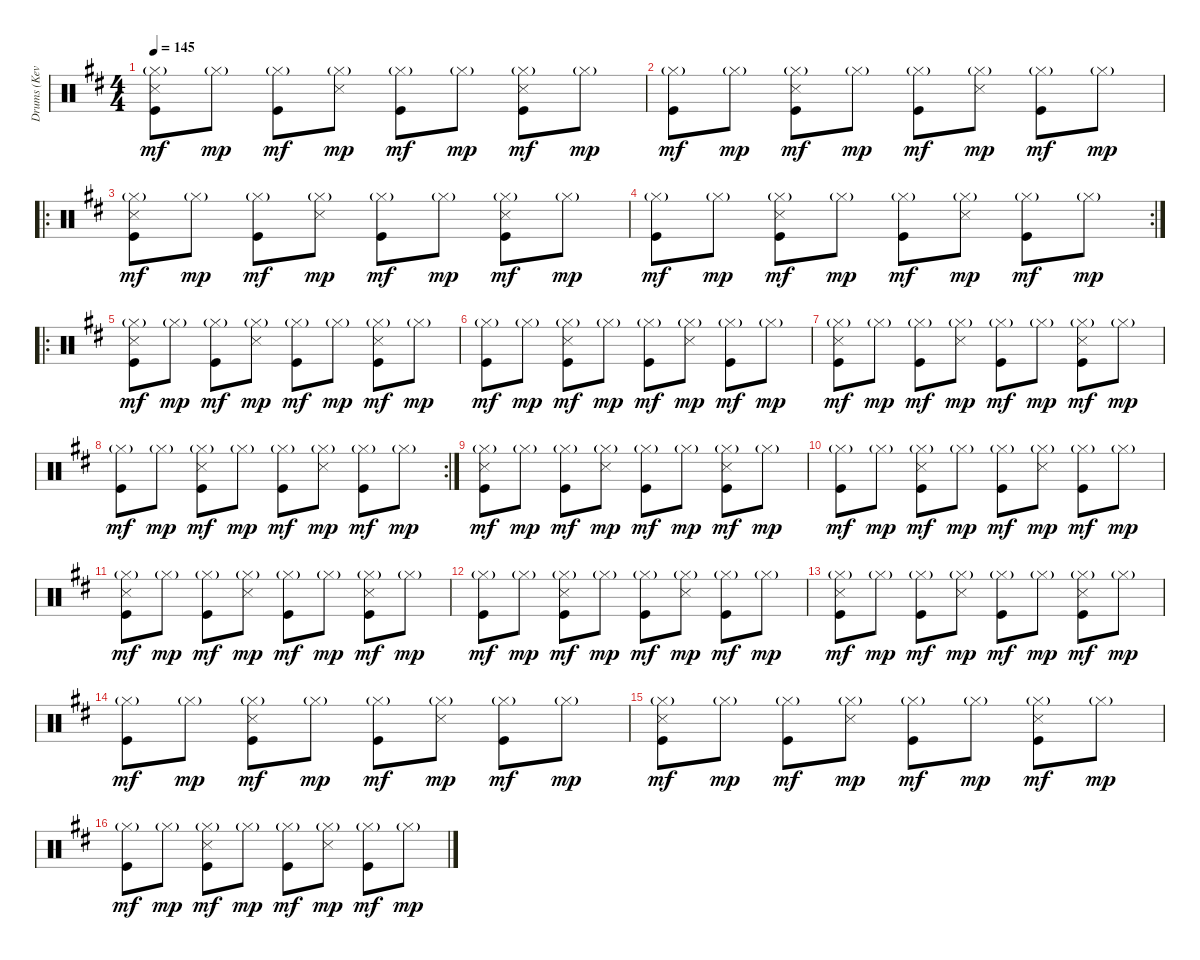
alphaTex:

\track ("Drums (Kevin Haskins)" "Drums (Kev") {instrument percussion}
\staff {score}
\articulation defaults
\ts (4 4)
\tempo 145
\clef neutral
\ks d
("Hi-Hat (closed)"{g} "Snare (side stick) 3" "Kick (hit)").8{dy mf} "Hi-Hat (closed)"{g}.8{dy mp} ("Hi-Hat (closed)"{g} "Kick (hit)").8{dy mf} ("Hi-Hat (closed)"{g} "Snare (side stick) 3").8{dy mp} ("Hi-Hat (closed)"{g} "Kick (hit)").8{dy mf} "Hi-Hat (closed)"{g}.8{dy mp} ("Hi-Hat (closed)"{g} "Snare (side stick) 3" "Kick (hit)").8{dy mf} "Hi-Hat (closed)"{g}.8{dy mp} |
("Hi-Hat (closed)"{g} "Kick (hit)").8{dy mf} "Hi-Hat (closed)"{g}.8{dy mp} ("Hi-Hat (closed)"{g} "Snare (side stick) 3" "Kick (hit)").8{dy mf} "Hi-Hat (closed)"{g}.8{dy mp} ("Hi-Hat (closed)"{g} "Kick (hit)").8{dy mf} ("Hi-Hat (closed)"{g} "Snare (side stick) 3").8{dy mp} ("Hi-Hat (closed)"{g} "Kick (hit)").8{dy mf} "Hi-Hat (closed)"{g}.8{dy mp} |
\ro
("Hi-Hat (closed)"{g} "Snare (side stick) 3" "Kick (hit)").8{dy mf} "Hi-Hat (closed)"{g}.8{dy mp} ("Hi-Hat (closed)"{g} "Kick (hit)").8{dy mf} ("Hi-Hat (closed)"{g} "Snare (side stick) 3").8{dy mp} ("Hi-Hat (closed)"{g} "Kick (hit)").8{dy mf} "Hi-Hat (closed)"{g}.8{dy mp} ("Hi-Hat (closed)"{g} "Snare (side stick) 3" "Kick (hit)").8{dy mf} "Hi-Hat (closed)"{g}.8{dy mp} |
\rc 2
("Hi-Hat (closed)"{g} "Kick (hit)").8{dy mf} "Hi-Hat (closed)"{g}.8{dy mp} ("Hi-Hat (closed)"{g} "Snare (side stick) 3" "Kick (hit)").8{dy mf} "Hi-Hat (closed)"{g}.8{dy mp} ("Hi-Hat (closed)"{g} "Kick (hit)").8{dy mf} ("Hi-Hat (closed)"{g} "Snare (side stick) 3").8{dy mp} ("Hi-Hat (closed)"{g} "Kick (hit)").8{dy mf} "Hi-Hat (closed)"{g}.8{dy mp} |
\ro
("Hi-Hat (closed)"{g} "Snare (side stick) 3" "Kick (hit)").8{dy mf} "Hi-Hat (closed)"{g}.8{dy mp} ("Hi-Hat (closed)"{g} "Kick (hit)").8{dy mf} ("Hi-Hat (closed)"{g} "Snare (side stick) 3").8{dy mp} ("Hi-Hat (closed)"{g} "Kick (hit)").8{dy mf} "Hi-Hat (closed)"{g}.8{dy mp} ("Hi-Hat (closed)"{g} "Snare (side stick) 3" "Kick (hit)").8{dy mf} "Hi-Hat (closed)"{g}.8{dy mp} |
("Hi-Hat (closed)"{g} "Kick (hit)").8{dy mf} "Hi-Hat (closed)"{g}.8{dy mp} ("Hi-Hat (closed)"{g} "Snare (side stick) 3" "Kick (hit)").8{dy mf} "Hi-Hat (closed)"{g}.8{dy mp} ("Hi-Hat (closed)"{g} "Kick (hit)").8{dy mf} ("Hi-Hat (closed)"{g} "Snare (side stick) 3").8{dy mp} ("Hi-Hat (closed)"{g} "Kick (hit)").8{dy mf} "Hi-Hat (closed)"{g}.8{dy mp} |
("Hi-Hat (closed)"{g} "Snare (side stick) 3" "Kick (hit)").8{dy mf} "Hi-Hat (closed)"{g}.8{dy mp} ("Hi-Hat (closed)"{g} "Kick (hit)").8{dy mf} ("Hi-Hat (closed)"{g} "Snare (side stick) 3").8{dy mp} ("Hi-Hat (closed)"{g} "Kick (hit)").8{dy mf} "Hi-Hat (closed)"{g}.8{dy mp} ("Hi-Hat (closed)"{g} "Snare (side stick) 3" "Kick (hit)").8{dy mf} "Hi-Hat (closed)"{g}.8{dy mp} |
\rc 2
("Hi-Hat (closed)"{g} "Kick (hit)").8{dy mf} "Hi-Hat (closed)"{g}.8{dy mp} ("Hi-Hat (closed)"{g} "Snare (side stick) 3" "Kick (hit)").8{dy mf} "Hi-Hat (closed)"{g}.8{dy mp} ("Hi-Hat (closed)"{g} "Kick (hit)").8{dy mf} ("Hi-Hat (closed)"{g} "Snare (side stick) 3").8{dy mp} ("Hi-Hat (closed)"{g} "Kick (hit)").8{dy mf} "Hi-Hat (closed)"{g}.8{dy mp} |
("Hi-Hat (closed)"{g} "Snare (side stick) 3" "Kick (hit)").8{dy mf} "Hi-Hat (closed)"{g}.8{dy mp} ("Hi-Hat (closed)"{g} "Kick (hit)").8{dy mf} ("Hi-Hat (closed)"{g} "Snare (side stick) 3").8{dy mp} ("Hi-Hat (closed)"{g} "Kick (hit)").8{dy mf} "Hi-Hat (closed)"{g}.8{dy mp} ("Hi-Hat (closed)"{g} "Snare (side stick) 3" "Kick (hit)").8{dy mf} "Hi-Hat (closed)"{g}.8{dy mp} |
("Hi-Hat (closed)"{g} "Kick (hit)").8{dy mf} "Hi-Hat (closed)"{g}.8{dy mp} ("Hi-Hat (closed)"{g} "Snare (side stick) 3" "Kick (hit)").8{dy mf} "Hi-Hat (closed)"{g}.8{dy mp} ("Hi-Hat (closed)"{g} "Kick (hit)").8{dy mf} ("Hi-Hat (closed)"{g} "Snare (side stick) 3").8{dy mp} ("Hi-Hat (closed)"{g} "Kick (hit)").8{dy mf} "Hi-Hat (closed)"{g}.8{dy mp} |
("Hi-Hat (closed)"{g} "Snare (side stick) 3" "Kick (hit)").8{dy mf} "Hi-Hat (closed)"{g}.8{dy mp} ("Hi-Hat (closed)"{g} "Kick (hit)").8{dy mf} ("Hi-Hat (closed)"{g} "Snare (side stick) 3").8{dy mp} ("Hi-Hat (closed)"{g} "Kick (hit)").8{dy mf} "Hi-Hat (closed)"{g}.8{dy mp} ("Hi-Hat (closed)"{g} "Snare (side stick) 3" "Kick (hit)").8{dy mf} "Hi-Hat (closed)"{g}.8{dy mp} |
("Hi-Hat (closed)"{g} "Kick (hit)").8{dy mf} "Hi-Hat (closed)"{g}.8{dy mp} ("Hi-Hat (closed)"{g} "Snare (side stick) 3" "Kick (hit)").8{dy mf} "Hi-Hat (closed)"{g}.8{dy mp} ("Hi-Hat (closed)"{g} "Kick (hit)").8{dy mf} ("Hi-Hat (closed)"{g} "Snare (side stick) 3").8{dy mp} ("Hi-Hat (closed)"{g} "Kick (hit)").8{dy mf} "Hi-Hat (closed)"{g}.8{dy mp} |
("Hi-Hat (closed)"{g} "Snare (side stick) 3" "Kick (hit)").8{dy mf} "Hi-Hat (closed)"{g}.8{dy mp} ("Hi-Hat (closed)"{g} "Kick (hit)").8{dy mf} ("Hi-Hat (closed)"{g} "Snare (side stick) 3").8{dy mp} ("Hi-Hat (closed)"{g} "Kick (hit)").8{dy mf} "Hi-Hat (closed)"{g}.8{dy mp} ("Hi-Hat (closed)"{g} "Snare (side stick) 3" "Kick (hit)").8{dy mf} "Hi-Hat (closed)"{g}.8{dy mp} |
("Hi-Hat (closed)"{g} "Kick (hit)").8{dy mf} "Hi-Hat (closed)"{g}.8{dy mp} ("Hi-Hat (closed)"{g} "Snare (side stick) 3" "Kick (hit)").8{dy mf} "Hi-Hat (closed)"{g}.8{dy mp} ("Hi-Hat (closed)"{g} "Kick (hit)").8{dy mf} ("Hi-Hat (closed)"{g} "Snare (side stick) 3").8{dy mp} ("Hi-Hat (closed)"{g} "Kick (hit)").8{dy mf} "Hi-Hat (closed)"{g}.8{dy mp} |
("Hi-Hat (closed)"{g} "Snare (side stick) 3" "Kick (hit)").8{dy mf} "Hi-Hat (closed)"{g}.8{dy mp} ("Hi-Hat (closed)"{g} "Kick (hit)").8{dy mf} ("Hi-Hat (closed)"{g} "Snare (side stick) 3").8{dy mp} ("Hi-Hat (closed)"{g} "Kick (hit)").8{dy mf} "Hi-Hat (closed)"{g}.8{dy mp} ("Hi-Hat (closed)"{g} "Snare (side stick) 3" "Kick (hit)").8{dy mf} "Hi-Hat (closed)"{g}.8{dy mp} |
("Hi-Hat (closed)"{g} "Kick (hit)").8{dy mf} "Hi-Hat (closed)"{g}.8{dy mp} ("Hi-Hat (closed)"{g} "Snare (side stick) 3" "Kick (hit)").8{dy mf} "Hi-Hat (closed)"{g}.8{dy mp} ("Hi-Hat (closed)"{g} "Kick (hit)").8{dy mf} ("Hi-Hat (closed)"{g} "Snare (side stick) 3").8{dy mp} ("Hi-Hat (closed)"{g} "Kick (hit)").8{dy mf} "Hi-Hat (closed)"{g}.8{dy mp}
